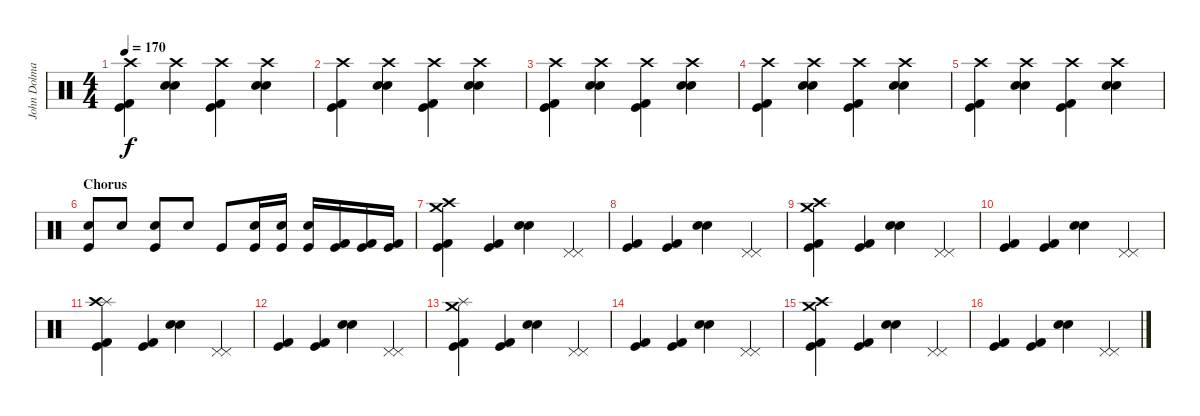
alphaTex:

\track ("John Dolmayan" "John Dolma") {instrument percussion}
\staff {score}
\articulation defaults
\ts (4 4)
\tempo 170
\clef neutral
\ks c
("Crash high (hit)" "Kick (hit) 2" "Kick (hit)").4{dy f} ("Crash high (hit)" "Snare (hit) 2" "Electric Snare (hit)").4 ("Crash high (hit)" "Kick (hit) 2" "Kick (hit)").4 ("Crash high (hit)" "Snare (hit) 2" "Electric Snare (hit)").4 |
("Crash high (hit)" "Kick (hit) 2" "Kick (hit)").4 ("Crash high (hit)" "Snare (hit) 2" "Electric Snare (hit)").4 ("Crash high (hit)" "Kick (hit) 2" "Kick (hit)").4 ("Crash high (hit)" "Snare (hit) 2" "Electric Snare (hit)").4 |
("Crash high (hit)" "Kick (hit) 2" "Kick (hit)").4 ("Crash high (hit)" "Snare (hit) 2" "Electric Snare (hit)").4 ("Crash high (hit)" "Kick (hit) 2" "Kick (hit)").4 ("Crash high (hit)" "Snare (hit) 2" "Electric Snare (hit)").4 |
("Crash high (hit)" "Kick (hit) 2" "Kick (hit)").4 ("Crash high (hit)" "Snare (hit) 2" "Electric Snare (hit)").4 ("Crash high (hit)" "Kick (hit) 2" "Kick (hit)").4 ("Crash high (hit)" "Snare (hit) 2" "Electric Snare (hit)").4 |
("Crash high (hit)" "Kick (hit) 2" "Kick (hit)").4 ("Crash high (hit)" "Snare (hit) 2" "Electric Snare (hit)").4 ("Crash high (hit)" "Kick (hit) 2" "Kick (hit)").4 ("Crash high (hit)" "Snare (hit) 2" "Electric Snare (hit)").4 |
\section ("" "Chorus")
("Electric Snare (hit)" "Kick (hit)").8 "Snare (hit) 2".8 ("Electric Snare (hit)" "Kick (hit)").8 "Snare (hit) 2".8 "Kick (hit)".8 ("Snare (hit) 2" "Kick (hit)").16 ("Snare (hit) 2" "Kick (hit)").16 ("Electric Snare (hit)" "Kick (hit)").16 ("Kick (hit)" "Kick (hit) 2").16 ("Kick (hit)" "Kick (hit) 2").16 ("Kick (hit)" "Kick (hit) 2").16 |
("Crash high (hit)" "Kick (hit)" "Kick (hit) 2" "Crash medium (hit)").4 ("Kick (hit)" "Kick (hit) 2").4 ("Snare (hit) 2" "Electric Snare (hit)").4 ("Pedal Hi-Hat (hit)" "Pedal Hi-Hat (hit)").4 |
("Kick (hit)" "Kick (hit) 2").4 ("Kick (hit)" "Kick (hit) 2").4 ("Snare (hit) 2" "Electric Snare (hit)").4 ("Pedal Hi-Hat (hit)" "Pedal Hi-Hat (hit)").4 |
("Crash medium (hit)" "Kick (hit)" "Kick (hit) 2" "Crash high (hit)").4 ("Kick (hit)" "Kick (hit) 2").4 ("Snare (hit) 2" "Electric Snare (hit)").4 ("Pedal Hi-Hat (hit)" "Pedal Hi-Hat (hit)").4 |
("Kick (hit)" "Kick (hit) 2").4 ("Kick (hit)" "Kick (hit) 2").4 ("Snare (hit) 2" "Snare (hit) 2").4 ("Pedal Hi-Hat (hit)" "Pedal Hi-Hat (hit)").4 |
("Splash (hit)" "Kick (hit)" "Kick (hit) 2" "Crash high (hit)").4 ("Kick (hit)" "Kick (hit) 2").4 ("Snare (hit) 2" "Electric Snare (hit)").4 ("Pedal Hi-Hat (hit)" "Pedal Hi-Hat (hit)").4 |
("Kick (hit)" "Kick (hit) 2").4 ("Kick (hit)" "Kick (hit) 2").4 ("Snare (hit) 2" "Electric Snare (hit)").4 ("Pedal Hi-Hat (hit)" "Pedal Hi-Hat (hit)").4 |
("Splash (hit)" "Kick (hit)" "Kick (hit) 2" "Crash medium (hit)").4 ("Kick (hit)" "Kick (hit) 2").4 ("Snare (hit) 2" "Electric Snare (hit)").4 ("Pedal Hi-Hat (hit)" "Pedal Hi-Hat (hit)").4 |
("Kick (hit)" "Kick (hit) 2").4 ("Kick (hit)" "Kick (hit) 2").4 ("Snare (hit) 2" "Electric Snare (hit)").4 ("Pedal Hi-Hat (hit)" "Pedal Hi-Hat (hit)").4 |
("Crash high (hit)" "Kick (hit)" "Kick (hit) 2" "Crash medium (hit)").4 ("Kick (hit)" "Kick (hit) 2").4 ("Snare (hit) 2" "Electric Snare (hit)").4 ("Pedal Hi-Hat (hit)" "Pedal Hi-Hat (hit)").4 |
("Kick (hit)" "Kick (hit) 2").4 ("Kick (hit)" "Kick (hit) 2").4 ("Snare (hit) 2" "Electric Snare (hit)").4 ("Pedal Hi-Hat (hit)" "Pedal Hi-Hat (hit)").4
